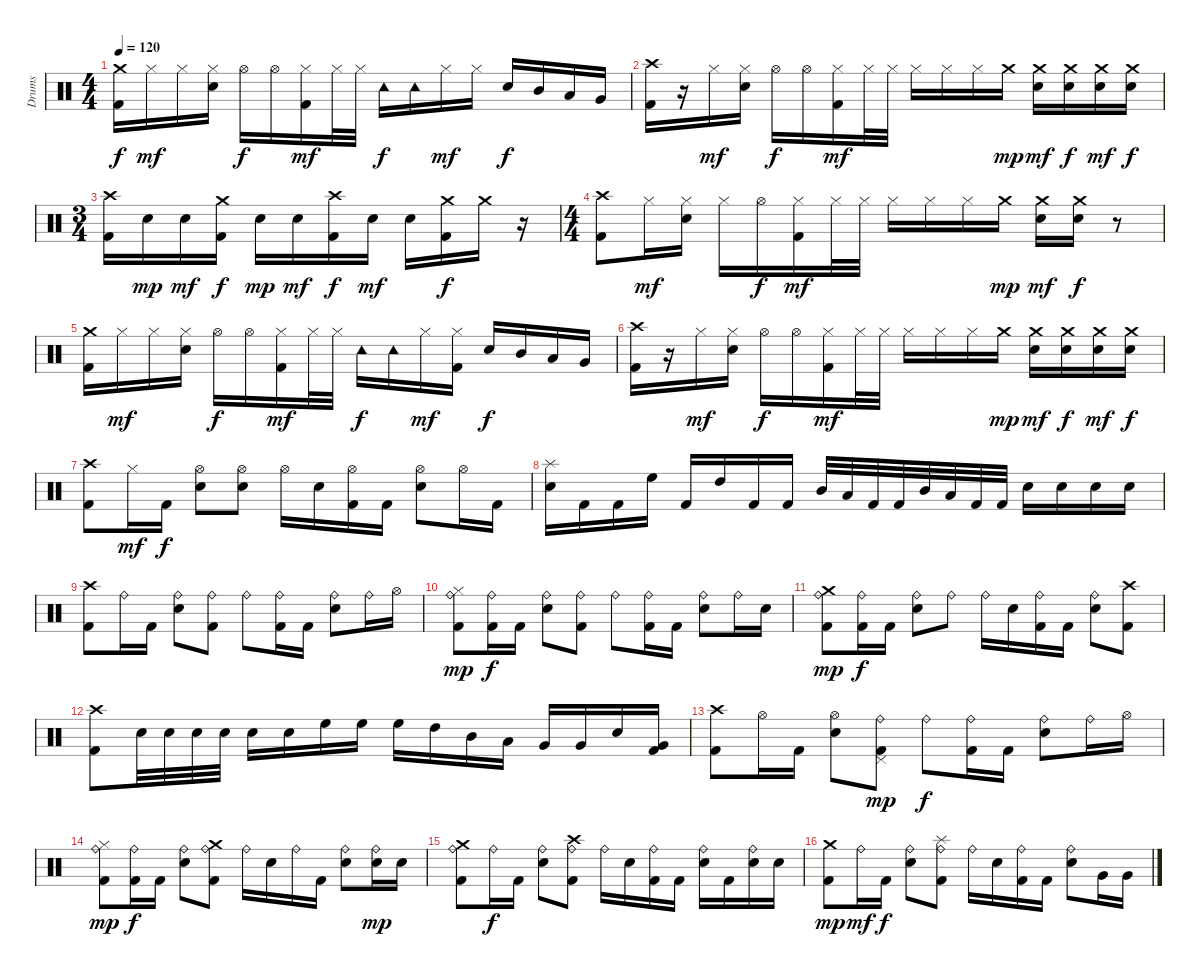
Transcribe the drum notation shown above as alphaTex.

\track ("Drums" "Drums") {instrument percussion}
\staff {score}
\articulation defaults
\ts (4 4)
\tempo 120
\clef neutral
\ks c
("Kick (hit) 2" "Crash medium (hit)").16{dy f} "Hi-Hat (closed)".16{dy mf} "Hi-Hat (closed)".16 ("Electric Snare (hit)" "Hi-Hat (closed)").16 "Hi-Hat (open)".16{dy f} "Hi-Hat (open)".16 ("Kick (hit) 2" "Hi-Hat (closed)").16{dy mf} "Hi-Hat (closed)".32 "Hi-Hat (closed)".32 "Tambourine (hit)".16{dy f} "Tambourine (hit)".16 "Hi-Hat (closed)".16{dy mf} "Hi-Hat (closed)".16 "Electric Snare (hit)".16{dy f} "Mid Tom (hit)".16 "Low Tom (hit)".16 "Very Low Tom (hit)".16 |
("Kick (hit) 2" "Crash high (hit)").16 r.16 "Hi-Hat (closed)".16{dy mf} ("Electric Snare (hit)" "Hi-Hat (closed)").16 "Hi-Hat (open)".16{dy f} "Hi-Hat (open)".16 ("Kick (hit) 2" "Hi-Hat (closed)").16{dy mf} "Hi-Hat (closed)".32 "Hi-Hat (closed)".32 "Hi-Hat (closed)".16 "Hi-Hat (closed)".16 "Hi-Hat (closed)".16 "Crash medium (hit)".16{dy mp} ("Electric Snare (hit)" "Crash medium (hit)").16{dy mf} ("Electric Snare (hit)" "Crash medium (hit)").16{dy f} ("Crash medium (hit)" "Electric Snare (hit)").16{dy mf} ("Electric Snare (hit)" "Crash medium (hit)").16{dy f} |
\ts (3 4)
("Kick (hit) 2" "Crash high (hit)").16 "Electric Snare (hit)".16{dy mp} "Electric Snare (hit)".16{dy mf} ("Kick (hit) 2" "Crash medium (hit)").16{dy f} "Electric Snare (hit)".16{dy mp} "Electric Snare (hit)".16{dy mf} ("Kick (hit) 2" "Crash high (hit)").16{dy f} "Electric Snare (hit)".16{dy mf} "Electric Snare (hit)".16 ("Kick (hit) 2" "Crash medium (hit)").16{dy f} "Crash medium (hit)".16 r.16 |
\ts (4 4)
("Kick (hit) 2" "Crash high (hit)").8 "Hi-Hat (closed)".16{dy mf} ("Electric Snare (hit)" "Hi-Hat (closed)").16 "Hi-Hat (closed)".16 "Hi-Hat (open)".16{dy f} ("Kick (hit) 2" "Hi-Hat (closed)").16{dy mf} "Hi-Hat (closed)".32 "Hi-Hat (closed)".32 "Hi-Hat (closed)".16 "Hi-Hat (closed)".16 "Hi-Hat (closed)".16 "Crash medium (hit)".16{dy mp} ("Electric Snare (hit)" "Crash medium (hit)").16{dy mf} ("Electric Snare (hit)" "Crash medium (hit)").16{dy f} r.8 |
("Crash medium (hit)" "Kick (hit) 2").16 "Hi-Hat (closed)".16{dy mf} "Hi-Hat (closed)".16 ("Electric Snare (hit)" "Hi-Hat (closed)").16 "Hi-Hat (open)".16{dy f} "Hi-Hat (open)".16 ("Kick (hit) 2" "Hi-Hat (closed)").16{dy mf} "Hi-Hat (closed)".32 "Hi-Hat (closed)".32 "Tambourine (hit)".16{dy f} "Tambourine (hit)".16 "Hi-Hat (closed)".16{dy mf} ("Kick (hit) 2" "Hi-Hat (closed)").16 "Electric Snare (hit)".16{dy f} "Mid Tom (hit)".16 "Low Tom (hit)".16 "Very Low Tom (hit)".16 |
("Crash high (hit)" "Kick (hit) 2").16 r.16 "Hi-Hat (closed)".16{dy mf} ("Electric Snare (hit)" "Hi-Hat (closed)").16 "Hi-Hat (open)".16{dy f} "Hi-Hat (open)".16 ("Kick (hit) 2" "Hi-Hat (closed)").16{dy mf} "Hi-Hat (closed)".32 "Hi-Hat (closed)".32 "Hi-Hat (closed)".16 "Hi-Hat (closed)".16 "Hi-Hat (closed)".16 "Crash medium (hit)".16{dy mp} ("Electric Snare (hit)" "Crash medium (hit)").16{dy mf} ("Electric Snare (hit)" "Crash medium (hit)").16{dy f} ("Crash medium (hit)" "Electric Snare (hit)").16{dy mf} ("Electric Snare (hit)" "Crash medium (hit)").16{dy f} |
("Crash high (hit)" "Kick (hit) 2").8 "Hi-Hat (closed)".16{dy mf} "Kick (hit) 2".16{dy f} ("Electric Snare (hit)" "Hi-Hat (open)").8 ("Hi-Hat (open)" "Electric Snare (hit)").8 "Hi-Hat (open)".16 "Electric Snare (hit)".16 ("Hi-Hat (open)" "Kick (hit) 2").16 "Kick (hit) 2".16 ("Electric Snare (hit)" "Hi-Hat (open)").8 "Hi-Hat (open)".16 "Kick (hit) 2".16 |
("Electric Snare (hit)" "Splash (hit)").16 "Kick (hit) 2".16 "Kick (hit) 2".16 "High Floor Tom (hit)".16 "Kick (hit) 2".16 "High Tom (hit)".16 "Kick (hit) 2".16 "Kick (hit) 2".16 "Mid Tom (hit)".32 "Low Tom (hit)".32 "Kick (hit) 2".32 "Kick (hit) 2".32 "Mid Tom (hit)".32 "Low Tom (hit)".32 "Kick (hit) 2".32 "Kick (hit) 2".32 "Electric Snare (hit)".16 "Electric Snare (hit)".16 "Electric Snare (hit)".16 "Electric Snare (hit)".16 |
("Crash high (hit)" "Kick (hit) 2").8 "Ride (bell)".16 "Kick (hit) 2".16 ("Electric Snare (hit)" "Ride (bell)").8 ("Kick (hit) 2" "Ride (bell)").8 "Ride (bell)".8 ("Kick (hit) 2" "Ride (bell)").16 "Kick (hit) 2".16 ("Electric Snare (hit)" "Ride (bell)").8 "Ride (bell)".16 "Hi-Hat (open)".16 |
("Ride (bell)" "Hi-Hat (closed)" "Kick (hit) 2").8{dy mp} ("Ride (bell)" "Kick (hit) 2").16{dy f} "Kick (hit) 2".16 ("Electric Snare (hit)" "Ride (bell)").8 ("Kick (hit) 2" "Ride (bell)").8 "Ride (bell)".8 ("Kick (hit) 2" "Ride (bell)").16 "Kick (hit) 2".16 ("Ride (bell)" "Electric Snare (hit)").8 "Ride (bell)".16 "Electric Snare (hit)".16 |
("Kick (hit) 2" "Ride (bell)" "Crash medium (hit)").8{dy mp} ("Ride (bell)" "Kick (hit) 2").16{dy f} "Kick (hit) 2".16 ("Electric Snare (hit)" "Ride (bell)").8 "Ride (bell)".8 "Ride (bell)".16 "Electric Snare (hit)".16 ("Kick (hit) 2" "Ride (bell)").16 "Kick (hit) 2".16 ("Ride (bell)" "Electric Snare (hit)").8 ("Crash high (hit)" "Kick (hit) 2").8 |
("Kick (hit) 2" "Crash high (hit)").8 "Electric Snare (hit)".32 "Electric Snare (hit)".32 "Electric Snare (hit)".32 "Electric Snare (hit)".32 "Electric Snare (hit)".16 "Electric Snare (hit)".16 "High Floor Tom (hit)".16 "High Floor Tom (hit)".16 "High Floor Tom (hit)".16 "High Tom (hit)".16 "Mid Tom (hit)".16 "Low Tom (hit)".16 "Very Low Tom (hit)".16 "Very Low Tom (hit)".16 "Electric Snare (hit)".16 ("Very Low Tom (hit)" "Kick (hit) 2").16 |
("Kick (hit) 2" "Crash high (hit)").8 "Hi-Hat (open)".16 "Kick (hit) 2".16 ("Electric Snare (hit)" "Hi-Hat (open)").8 ("Kick (hit) 2" "Pedal Hi-Hat (hit)" "Ride (bell)").8{dy mp} "Ride (bell)".8{dy f} ("Kick (hit) 2" "Ride (bell)").16 "Kick (hit) 2".16 ("Electric Snare (hit)" "Ride (bell)").8 "Ride (bell)".16 "Hi-Hat (open)".16 |
("Ride (bell)" "Hi-Hat (closed)" "Kick (hit) 2").8{dy mp} ("Ride (bell)" "Kick (hit) 2").16{dy f} "Kick (hit) 2".16 ("Electric Snare (hit)" "Ride (bell)").8 ("Kick (hit) 2" "Ride (bell)" "Crash medium (hit)").8 "Ride (bell)".16 "Electric Snare (hit)".16 "Ride (bell)".16 "Kick (hit) 2".16 ("Ride (bell)" "Electric Snare (hit)").8 ("Ride (bell)" "Electric Snare (hit)").16{dy mp} "Electric Snare (hit)".16 |
("Kick (hit) 2" "Ride (bell)" "Crash medium (hit)").8 "Ride (bell)".16{dy f} "Kick (hit) 2".16 ("Electric Snare (hit)" "Ride (bell)").8 ("Ride (bell)" "Kick (hit) 2" "Crash high (hit)").8 "Ride (bell)".16 "Electric Snare (hit)".16 ("Kick (hit) 2" "Ride (bell)").16 "Kick (hit) 2".16 ("Ride (bell)" "Electric Snare (hit)").16 "Kick (hit) 2".16 ("Electric Snare (hit)" "Ride (bell)").16 "Electric Snare (hit)".16 |
("Crash medium (hit)" "Kick (hit) 2").8{dy mp} "Ride (bell)".16{dy mf} "Kick (hit) 2".16{dy f} ("Electric Snare (hit)" "Ride (bell)").8 ("Ride (bell)" "Kick (hit) 2" "Splash (hit)").8 "Ride (bell)".16 "Electric Snare (hit)".16 ("Kick (hit) 2" "Ride (bell)").16 "Kick (hit) 2".16 ("Ride (bell)" "Electric Snare (hit)").8 "Very Low Tom (hit)".16 "Very Low Tom (hit)".16
